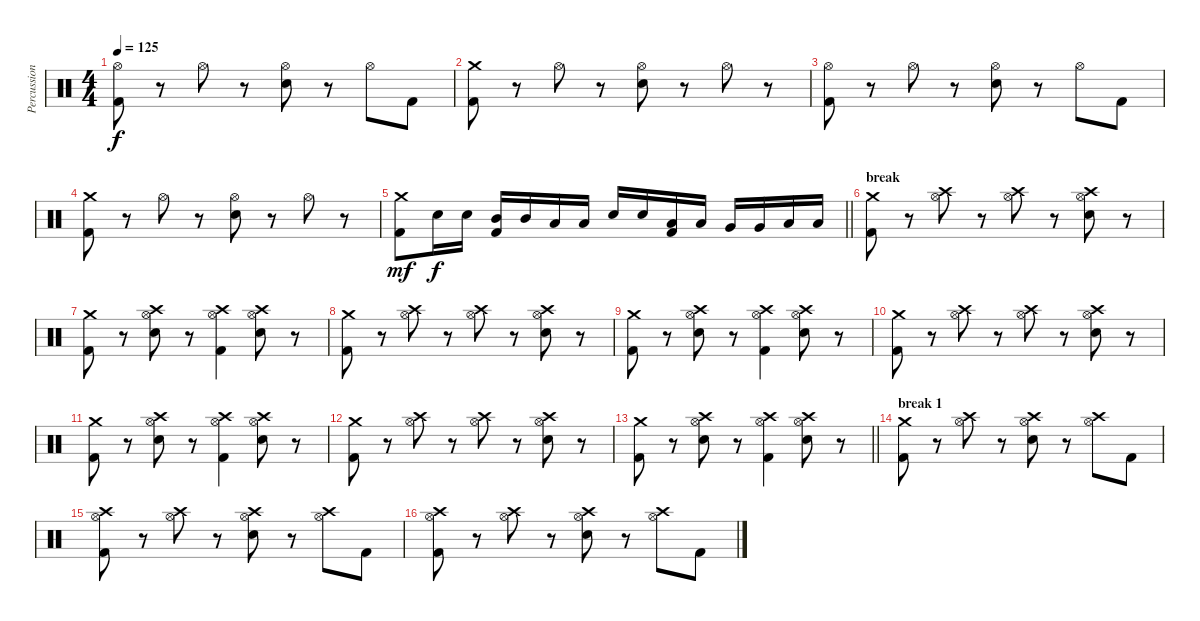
\track ("Percussion" "Percussion") {instrument percussion}
\staff {score}
\articulation defaults
\ts (4 4)
\tempo 125
\clef neutral
\ks c
("Hi-Hat (open)" "Kick (hit) 2").8{dy f} r.8 "Hi-Hat (open)".8 r.8 ("Hi-Hat (open)" "Electric Snare (hit)").8 r.8 "Hi-Hat (open)".8 "Kick (hit) 2".8 |
("Crash medium (hit)" "Kick (hit) 2").8 r.8 "Hi-Hat (open)".8 r.8 ("Hi-Hat (open)" "Electric Snare (hit)").8 r.8 "Hi-Hat (open)".8 r.8 |
("Hi-Hat (open)" "Kick (hit) 2").8 r.8 "Hi-Hat (open)".8 r.8 ("Hi-Hat (open)" "Electric Snare (hit)").8 r.8 "Hi-Hat (open)".8 "Kick (hit) 2".8 |
("Crash medium (hit)" "Kick (hit) 2").8 r.8 "Hi-Hat (open)".8 r.8 ("Hi-Hat (open)" "Electric Snare (hit)").8 r.8 "Hi-Hat (open)".8 r.8 |
\barLineRight lightlight
("Kick (hit) 2" "Crash medium (hit)").8{dy mf} "Snare (hit) 2".16{dy f} "Snare (hit) 2".16 ("Kick (hit) 2" "Mid Tom (hit)").16 "Mid Tom (hit)".16 "Low Tom (hit)".16 "Low Tom (hit)".16 "Snare (hit) 2".16 "Snare (hit) 2".16 ("Kick (hit) 2" "Low Tom (hit)").16 "Low Tom (hit)".16 "Very Low Tom (hit)".16 "Very Low Tom (hit)".16 "Low Floor Tom (hit)".16 "Low Floor Tom (hit)".16 |
\section ("" "break")
("Crash medium (hit)" "Kick (hit) 2").8 r.8 ("Hi-Hat (open)" "Crash high (hit)").8 r.8 ("Hi-Hat (open)" "Crash high (hit)").8 r.8 ("Crash high (hit)" "Hi-Hat (open)" "Electric Snare (hit)").8 r.8 |
("Crash medium (hit)" "Kick (hit) 2").8 r.8 ("Hi-Hat (open)" "Crash high (hit)" "Electric Snare (hit)").8 r.8 ("Hi-Hat (open)" "Crash high (hit)" "Kick (hit) 2").4 ("Hi-Hat (open)" "Crash high (hit)" "Electric Snare (hit)").8 r.8 |
("Crash medium (hit)" "Kick (hit) 2").8 r.8 ("Hi-Hat (open)" "Crash high (hit)").8 r.8 ("Hi-Hat (open)" "Crash high (hit)").8 r.8 ("Crash high (hit)" "Hi-Hat (open)" "Electric Snare (hit)").8 r.8 |
("Crash medium (hit)" "Kick (hit) 2").8 r.8 ("Hi-Hat (open)" "Crash high (hit)" "Electric Snare (hit)").8 r.8 ("Hi-Hat (open)" "Crash high (hit)" "Kick (hit) 2").4 ("Hi-Hat (open)" "Crash high (hit)" "Electric Snare (hit)").8 r.8 |
("Crash medium (hit)" "Kick (hit) 2").8 r.8 ("Hi-Hat (open)" "Crash high (hit)").8 r.8 ("Hi-Hat (open)" "Crash high (hit)").8 r.8 ("Crash high (hit)" "Hi-Hat (open)" "Electric Snare (hit)").8 r.8 |
("Crash medium (hit)" "Kick (hit) 2").8 r.8 ("Hi-Hat (open)" "Crash high (hit)" "Electric Snare (hit)").8 r.8 ("Hi-Hat (open)" "Crash high (hit)" "Kick (hit) 2").4 ("Hi-Hat (open)" "Crash high (hit)" "Electric Snare (hit)").8 r.8 |
("Crash medium (hit)" "Kick (hit) 2").8 r.8 ("Hi-Hat (open)" "Crash high (hit)").8 r.8 ("Hi-Hat (open)" "Crash high (hit)").8 r.8 ("Crash high (hit)" "Hi-Hat (open)" "Electric Snare (hit)").8 r.8 |
\barLineRight lightlight
("Crash medium (hit)" "Kick (hit) 2").8 r.8 ("Hi-Hat (open)" "Crash high (hit)" "Electric Snare (hit)").8 r.8 ("Hi-Hat (open)" "Crash high (hit)" "Kick (hit) 2").4 ("Hi-Hat (open)" "Crash high (hit)" "Electric Snare (hit)").8 r.8 |
\section ("" "break 1")
("Crash medium (hit)" "Kick (hit) 2").8 r.8 ("Hi-Hat (open)" "Crash high (hit)").8 r.8 ("Hi-Hat (open)" "Crash high (hit)" "Electric Snare (hit)").8 r.8 ("Hi-Hat (open)" "Crash high (hit)").8 "Kick (hit) 2".8 |
("Hi-Hat (open)" "Crash high (hit)" "Kick (hit) 2").8 r.8 ("Hi-Hat (open)" "Crash high (hit)").8 r.8 ("Hi-Hat (open)" "Crash high (hit)" "Electric Snare (hit)").8 r.8 ("Hi-Hat (open)" "Crash high (hit)").8 "Kick (hit) 2".8 |
("Hi-Hat (open)" "Crash high (hit)" "Kick (hit) 2").8 r.8 ("Hi-Hat (open)" "Crash high (hit)").8 r.8 ("Hi-Hat (open)" "Crash high (hit)" "Electric Snare (hit)").8 r.8 ("Hi-Hat (open)" "Crash high (hit)").8 "Kick (hit) 2".8
